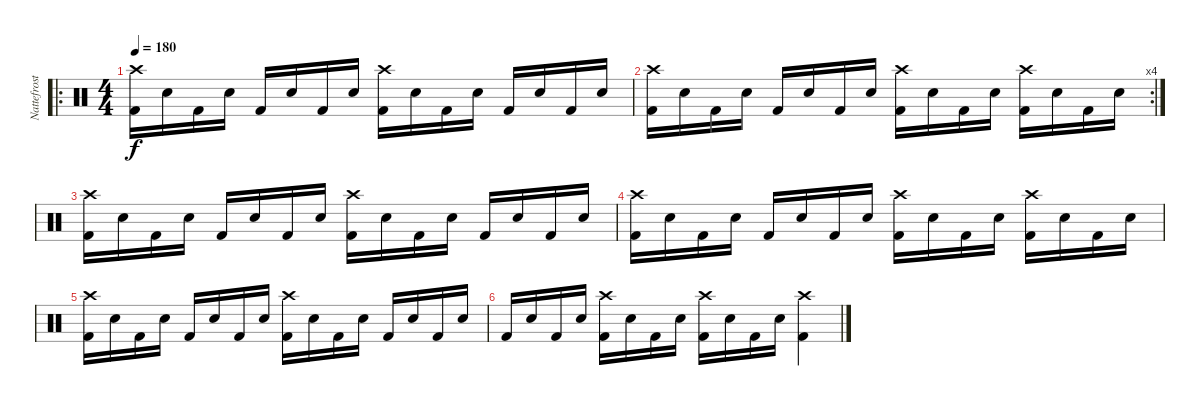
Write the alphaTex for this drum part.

\track ("Nattefrost" "Nattefrost") {instrument percussion}
\staff {score}
\articulation defaults
\ro
\ts (4 4)
\tempo 180
\clef neutral
\ks c
("Crash high (hit)" "Kick (hit) 2").16{dy f} "Electric Snare (hit)".16 "Kick (hit) 2".16 "Electric Snare (hit)".16 "Kick (hit) 2".16 "Electric Snare (hit)".16 "Kick (hit) 2".16 "Electric Snare (hit)".16 ("Crash high (hit)" "Kick (hit) 2").16 "Electric Snare (hit)".16 "Kick (hit) 2".16 "Electric Snare (hit)".16 "Kick (hit) 2".16 "Electric Snare (hit)".16 "Kick (hit) 2".16 "Electric Snare (hit)".16 |
\rc 4
("Crash high (hit)" "Kick (hit) 2").16 "Electric Snare (hit)".16 "Kick (hit) 2".16 "Electric Snare (hit)".16 "Kick (hit) 2".16 "Electric Snare (hit)".16 "Kick (hit) 2".16 "Electric Snare (hit)".16 ("Crash high (hit)" "Kick (hit) 2").16 "Electric Snare (hit)".16 "Kick (hit) 2".16 "Electric Snare (hit)".16 ("Crash high (hit)" "Kick (hit) 2").16 "Electric Snare (hit)".16 "Kick (hit) 2".16 "Electric Snare (hit)".16 |
("Crash high (hit)" "Kick (hit) 2").16 "Electric Snare (hit)".16 "Kick (hit) 2".16 "Electric Snare (hit)".16 "Kick (hit) 2".16 "Electric Snare (hit)".16 "Kick (hit) 2".16 "Electric Snare (hit)".16 ("Crash high (hit)" "Kick (hit) 2").16 "Electric Snare (hit)".16 "Kick (hit) 2".16 "Electric Snare (hit)".16 "Kick (hit) 2".16 "Electric Snare (hit)".16 "Kick (hit) 2".16 "Electric Snare (hit)".16 |
("Crash high (hit)" "Kick (hit) 2").16 "Electric Snare (hit)".16 "Kick (hit) 2".16 "Electric Snare (hit)".16 "Kick (hit) 2".16 "Electric Snare (hit)".16 "Kick (hit) 2".16 "Electric Snare (hit)".16 ("Crash high (hit)" "Kick (hit) 2").16 "Electric Snare (hit)".16 "Kick (hit) 2".16 "Electric Snare (hit)".16 ("Crash high (hit)" "Kick (hit) 2").16 "Electric Snare (hit)".16 "Kick (hit) 2".16 "Electric Snare (hit)".16 |
("Crash high (hit)" "Kick (hit) 2").16 "Electric Snare (hit)".16 "Kick (hit) 2".16 "Electric Snare (hit)".16 "Kick (hit) 2".16 "Electric Snare (hit)".16 "Kick (hit) 2".16 "Electric Snare (hit)".16 ("Crash high (hit)" "Kick (hit) 2").16 "Electric Snare (hit)".16 "Kick (hit) 2".16 "Electric Snare (hit)".16 "Kick (hit) 2".16 "Electric Snare (hit)".16 "Kick (hit) 2".16 "Electric Snare (hit)".16 |
"Kick (hit) 2".16 "Electric Snare (hit)".16 "Kick (hit) 2".16 "Electric Snare (hit)".16 ("Crash high (hit)" "Kick (hit) 2").16 "Electric Snare (hit)".16 "Kick (hit) 2".16 "Electric Snare (hit)".16 ("Crash high (hit)" "Kick (hit) 2").16 "Electric Snare (hit)".16 "Kick (hit) 2".16 "Electric Snare (hit)".16 ("Crash high (hit)" "Kick (hit) 2").4
